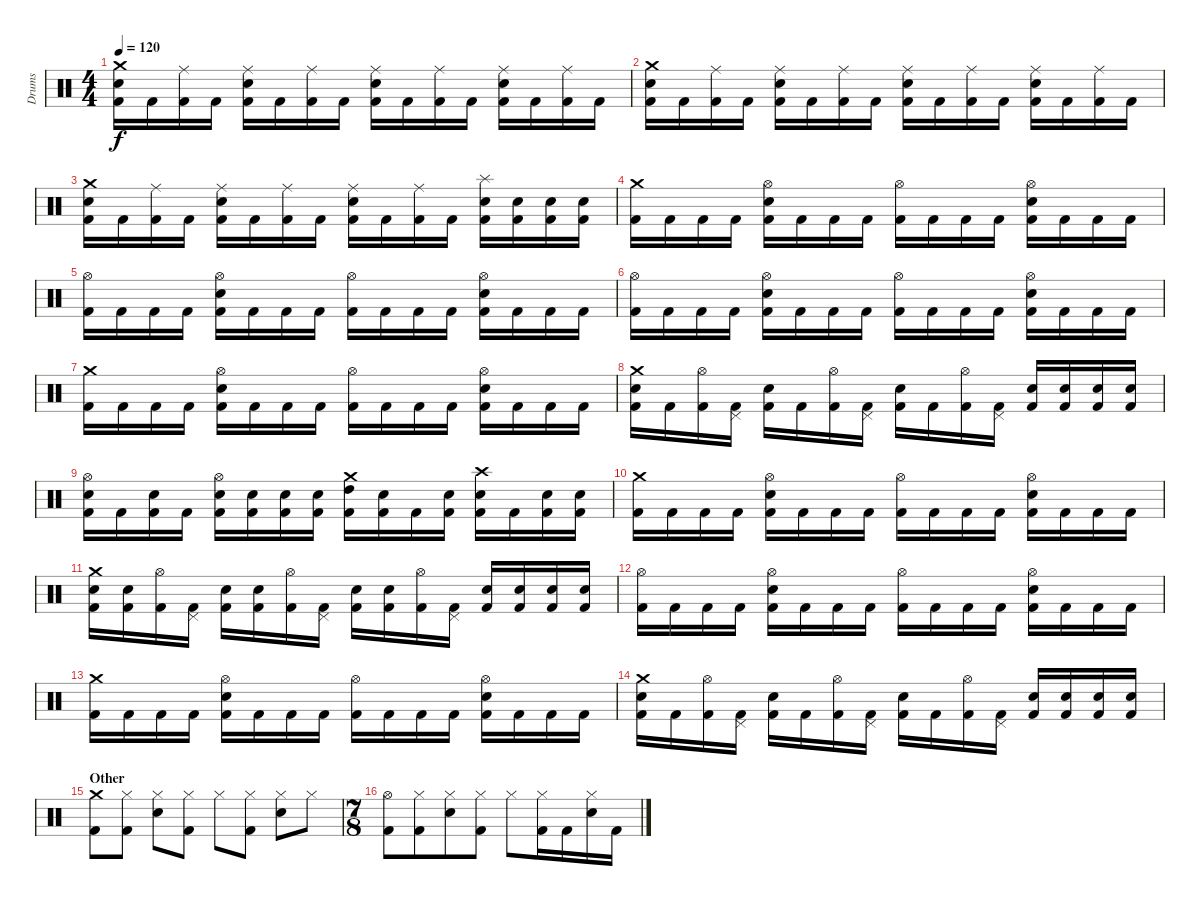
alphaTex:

\track ("Drums" "Drums") {instrument percussion}
\staff {score}
\articulation defaults
\ts (4 4)
\tempo 120
\clef neutral
\ks c
("Crash medium (hit)" "Electric Snare (hit)" "Kick (hit) 2").16{dy f} "Kick (hit) 2".16 ("Ride (middle)" "Kick (hit) 2").16 "Kick (hit) 2".16 ("Ride (middle)" "Electric Snare (hit)" "Kick (hit) 2").16 "Kick (hit) 2".16 ("Ride (middle)" "Kick (hit) 2").16 "Kick (hit) 2".16 ("Ride (middle)" "Electric Snare (hit)" "Kick (hit) 2").16 "Kick (hit) 2".16 ("Ride (middle)" "Kick (hit) 2").16 "Kick (hit) 2".16 ("Ride (middle)" "Electric Snare (hit)" "Kick (hit) 2").16 "Kick (hit) 2".16 ("Ride (middle)" "Kick (hit) 2").16 "Kick (hit) 2".16 |
("Crash medium (hit)" "Electric Snare (hit)" "Kick (hit) 2").16 "Kick (hit) 2".16 ("Ride (middle)" "Kick (hit) 2").16 "Kick (hit) 2".16 ("Ride (middle)" "Electric Snare (hit)" "Kick (hit) 2").16 "Kick (hit) 2".16 ("Ride (middle)" "Kick (hit) 2").16 "Kick (hit) 2".16 ("Ride (middle)" "Electric Snare (hit)" "Kick (hit) 2").16 "Kick (hit) 2".16 ("Ride (middle)" "Kick (hit) 2").16 "Kick (hit) 2".16 ("Ride (middle)" "Electric Snare (hit)" "Kick (hit) 2").16 "Kick (hit) 2".16 ("Ride (middle)" "Kick (hit) 2").16 "Kick (hit) 2".16 |
("Crash medium (hit)" "Electric Snare (hit)" "Kick (hit) 2").16 "Kick (hit) 2".16 ("Ride (middle)" "Kick (hit) 2").16 "Kick (hit) 2".16 ("Ride (middle)" "Electric Snare (hit)" "Kick (hit) 2").16 "Kick (hit) 2".16 ("Ride (middle)" "Kick (hit) 2").16 "Kick (hit) 2".16 ("Ride (middle)" "Electric Snare (hit)" "Kick (hit) 2").16 "Kick (hit) 2".16 ("Ride (middle)" "Kick (hit) 2").16 "Kick (hit) 2".16 ("Splash (hit)" "Electric Snare (hit)" "Kick (hit) 2").16 ("Electric Snare (hit)" "Kick (hit) 2").16 ("Electric Snare (hit)" "Kick (hit) 2").16 ("Electric Snare (hit)" "Kick (hit) 2").16 |
("Crash medium (hit)" "Kick (hit) 2").16 "Kick (hit) 2".16 "Kick (hit) 2".16 "Kick (hit) 2".16 ("Hi-Hat (open)" "Electric Snare (hit)" "Kick (hit) 2").16 "Kick (hit) 2".16 "Kick (hit) 2".16 "Kick (hit) 2".16 ("Hi-Hat (open)" "Kick (hit) 2").16 "Kick (hit) 2".16 "Kick (hit) 2".16 "Kick (hit) 2".16 ("Hi-Hat (open)" "Electric Snare (hit)" "Kick (hit) 2").16 "Kick (hit) 2".16 "Kick (hit) 2".16 "Kick (hit) 2".16 |
("Hi-Hat (open)" "Kick (hit) 2").16 "Kick (hit) 2".16 "Kick (hit) 2".16 "Kick (hit) 2".16 ("Hi-Hat (open)" "Electric Snare (hit)" "Kick (hit) 2").16 "Kick (hit) 2".16 "Kick (hit) 2".16 "Kick (hit) 2".16 ("Hi-Hat (open)" "Kick (hit) 2").16 "Kick (hit) 2".16 "Kick (hit) 2".16 "Kick (hit) 2".16 ("Hi-Hat (open)" "Electric Snare (hit)" "Kick (hit) 2").16 "Kick (hit) 2".16 "Kick (hit) 2".16 "Kick (hit) 2".16 |
("Hi-Hat (open)" "Kick (hit) 2").16 "Kick (hit) 2".16 "Kick (hit) 2".16 "Kick (hit) 2".16 ("Hi-Hat (open)" "Electric Snare (hit)" "Kick (hit) 2").16 "Kick (hit) 2".16 "Kick (hit) 2".16 "Kick (hit) 2".16 ("Hi-Hat (open)" "Kick (hit) 2").16 "Kick (hit) 2".16 "Kick (hit) 2".16 "Kick (hit) 2".16 ("Hi-Hat (open)" "Electric Snare (hit)" "Kick (hit) 2").16 "Kick (hit) 2".16 "Kick (hit) 2".16 "Kick (hit) 2".16 |
("Crash medium (hit)" "Kick (hit) 2").16 "Kick (hit) 2".16 "Kick (hit) 2".16 "Kick (hit) 2".16 ("Hi-Hat (open)" "Electric Snare (hit)" "Kick (hit) 2").16 "Kick (hit) 2".16 "Kick (hit) 2".16 "Kick (hit) 2".16 ("Hi-Hat (open)" "Kick (hit) 2").16 "Kick (hit) 2".16 "Kick (hit) 2".16 "Kick (hit) 2".16 ("Hi-Hat (open)" "Electric Snare (hit)" "Kick (hit) 2").16 "Kick (hit) 2".16 "Kick (hit) 2".16 "Kick (hit) 2".16 |
("Crash medium (hit)" "Electric Snare (hit)" "Kick (hit) 2").16 "Kick (hit) 2".16 ("Hi-Hat (open)" "Kick (hit) 2").16 ("Pedal Hi-Hat (hit)" "Kick (hit) 2").16 ("Electric Snare (hit)" "Kick (hit) 2").16 "Kick (hit) 2".16 ("Hi-Hat (open)" "Kick (hit) 2").16 ("Pedal Hi-Hat (hit)" "Kick (hit) 2").16 ("Electric Snare (hit)" "Kick (hit) 2").16 "Kick (hit) 2".16 ("Hi-Hat (open)" "Kick (hit) 2").16 ("Pedal Hi-Hat (hit)" "Kick (hit) 2").16 ("Electric Snare (hit)" "Kick (hit) 2").16 ("Electric Snare (hit)" "Kick (hit) 2").16 ("Electric Snare (hit)" "Kick (hit) 2").16 ("Electric Snare (hit)" "Kick (hit) 2").16 |
("Hi-Hat (open)" "Electric Snare (hit)" "Kick (hit) 2").16 "Kick (hit) 2".16 ("Electric Snare (hit)" "Kick (hit) 2").16 "Kick (hit) 2".16 ("Hi-Hat (open)" "Electric Snare (hit)" "Kick (hit) 2").16 ("Electric Snare (hit)" "Kick (hit) 2").16 ("Electric Snare (hit)" "Kick (hit) 2").16 ("Electric Snare (hit)" "Kick (hit) 2").16 ("Crash medium (hit)" "High Tom (hit)" "Kick (hit) 2").16 ("Electric Snare (hit)" "Kick (hit) 2").16 "Kick (hit) 2".16 ("Electric Snare (hit)" "Kick (hit) 2").16 ("Crash high (hit)" "Electric Snare (hit)" "Kick (hit) 2").16 "Kick (hit) 2".16 ("Electric Snare (hit)" "Kick (hit) 2").16 ("Electric Snare (hit)" "Kick (hit) 2").16 |
("Crash medium (hit)" "Kick (hit) 2").16 "Kick (hit) 2".16 "Kick (hit) 2".16 "Kick (hit) 2".16 ("Hi-Hat (open)" "Electric Snare (hit)" "Kick (hit) 2").16 "Kick (hit) 2".16 "Kick (hit) 2".16 "Kick (hit) 2".16 ("Hi-Hat (open)" "Kick (hit) 2").16 "Kick (hit) 2".16 "Kick (hit) 2".16 "Kick (hit) 2".16 ("Hi-Hat (open)" "Electric Snare (hit)" "Kick (hit) 2").16 "Kick (hit) 2".16 "Kick (hit) 2".16 "Kick (hit) 2".16 |
("Crash medium (hit)" "Electric Snare (hit)" "Kick (hit) 2").16 ("Electric Snare (hit)" "Kick (hit) 2").16 ("Hi-Hat (open)" "Kick (hit) 2").16 ("Pedal Hi-Hat (hit)" "Kick (hit) 2").16 ("Electric Snare (hit)" "Kick (hit) 2").16 ("Electric Snare (hit)" "Kick (hit) 2").16 ("Hi-Hat (open)" "Kick (hit) 2").16 ("Pedal Hi-Hat (hit)" "Kick (hit) 2").16 ("Electric Snare (hit)" "Kick (hit) 2").16 ("Electric Snare (hit)" "Kick (hit) 2").16 ("Hi-Hat (open)" "Kick (hit) 2").16 ("Pedal Hi-Hat (hit)" "Kick (hit) 2").16 ("Electric Snare (hit)" "Kick (hit) 2").16 ("Electric Snare (hit)" "Kick (hit) 2").16 ("Electric Snare (hit)" "Kick (hit) 2").16 ("Electric Snare (hit)" "Kick (hit) 2").16 |
("Hi-Hat (open)" "Kick (hit) 2").16 "Kick (hit) 2".16 "Kick (hit) 2".16 "Kick (hit) 2".16 ("Hi-Hat (open)" "Electric Snare (hit)" "Kick (hit) 2").16 "Kick (hit) 2".16 "Kick (hit) 2".16 "Kick (hit) 2".16 ("Hi-Hat (open)" "Kick (hit) 2").16 "Kick (hit) 2".16 "Kick (hit) 2".16 "Kick (hit) 2".16 ("Hi-Hat (open)" "Electric Snare (hit)" "Kick (hit) 2").16 "Kick (hit) 2".16 "Kick (hit) 2".16 "Kick (hit) 2".16 |
("Crash medium (hit)" "Kick (hit) 2").16 "Kick (hit) 2".16 "Kick (hit) 2".16 "Kick (hit) 2".16 ("Hi-Hat (open)" "Electric Snare (hit)" "Kick (hit) 2").16 "Kick (hit) 2".16 "Kick (hit) 2".16 "Kick (hit) 2".16 ("Hi-Hat (open)" "Kick (hit) 2").16 "Kick (hit) 2".16 "Kick (hit) 2".16 "Kick (hit) 2".16 ("Hi-Hat (open)" "Electric Snare (hit)" "Kick (hit) 2").16 "Kick (hit) 2".16 "Kick (hit) 2".16 "Kick (hit) 2".16 |
("Crash medium (hit)" "Electric Snare (hit)" "Kick (hit) 2").16 "Kick (hit) 2".16 ("Hi-Hat (open)" "Kick (hit) 2").16 ("Pedal Hi-Hat (hit)" "Kick (hit) 2").16 ("Electric Snare (hit)" "Kick (hit) 2").16 "Kick (hit) 2".16 ("Hi-Hat (open)" "Kick (hit) 2").16 ("Pedal Hi-Hat (hit)" "Kick (hit) 2").16 ("Electric Snare (hit)" "Kick (hit) 2").16 "Kick (hit) 2".16 ("Hi-Hat (open)" "Kick (hit) 2").16 ("Pedal Hi-Hat (hit)" "Kick (hit) 2").16 ("Electric Snare (hit)" "Kick (hit) 2").16 ("Electric Snare (hit)" "Kick (hit) 2").16 ("Electric Snare (hit)" "Kick (hit) 2").16 ("Electric Snare (hit)" "Kick (hit) 2").16 |
\section ("" "Other")
("Crash medium (hit)" "Kick (hit) 2").8 ("Hi-Hat (closed)" "Kick (hit) 2").8 ("Hi-Hat (closed)" "Electric Snare (hit)").8 ("Hi-Hat (closed)" "Kick (hit) 2").8 "Hi-Hat (closed)".8 ("Hi-Hat (closed)" "Kick (hit) 2").8 ("Hi-Hat (closed)" "Electric Snare (hit)").8 "Hi-Hat (closed)".8 |
\ts (7 8)
("Hi-Hat (open)" "Kick (hit) 2").8 ("Hi-Hat (closed)" "Kick (hit) 2").8 ("Hi-Hat (closed)" "Electric Snare (hit)").8 ("Hi-Hat (closed)" "Kick (hit) 2").8 "Hi-Hat (closed)".8 ("Hi-Hat (closed)" "Kick (hit) 2").16 "Kick (hit) 2".16 ("Hi-Hat (closed)" "Electric Snare (hit)").16 "Kick (hit) 2".16
